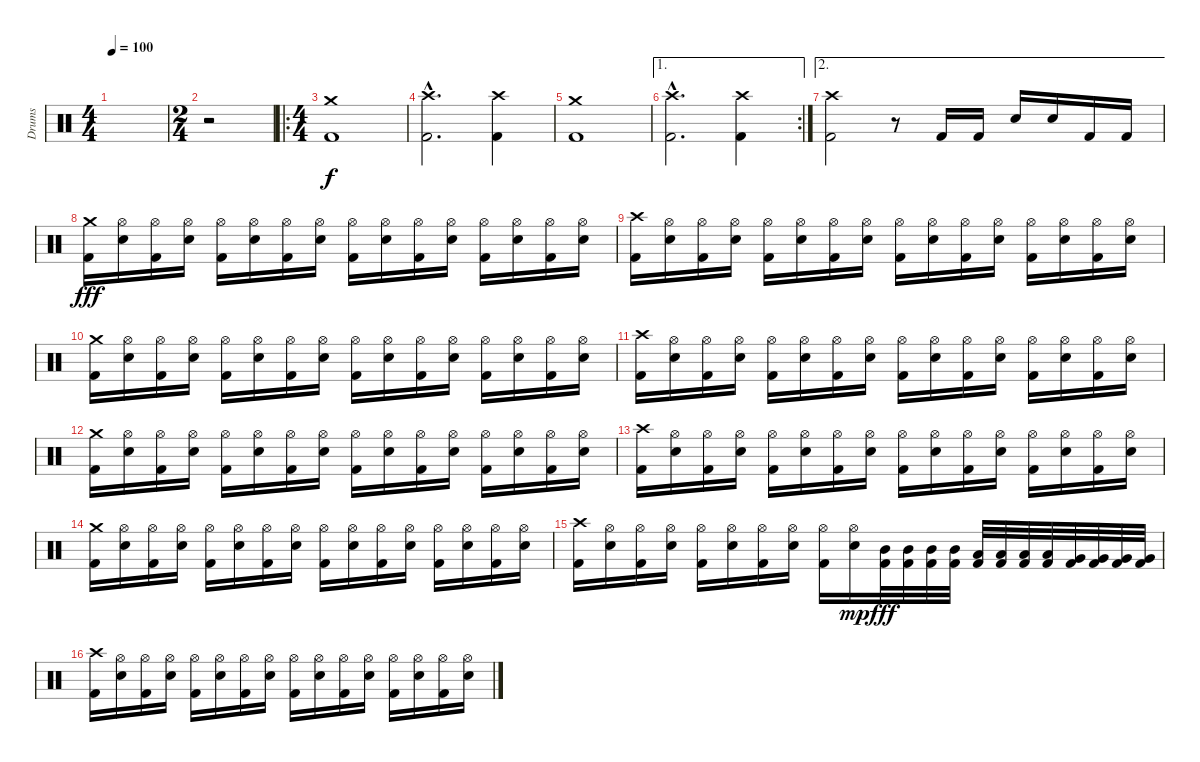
\track ("Drums" "Drums") {instrument percussion}
\staff {score}
\articulation defaults
\ts (4 4)
\tempo 100
\clef neutral
\ks c
|
\ts (2 4)
r.2 |
\ro
\ts (4 4)
("Crash medium (hit)" "Kick (hit) 2").1 |
("Crash high (hit)"{hac} "Kick (hit) 2"{hac}).2{d} ("Crash high (hit)" "Kick (hit) 2").4 |
("Crash medium (hit)" "Kick (hit) 2").1 |
\ae 1
\rc 2
("Crash high (hit)"{hac} "Kick (hit) 2"{hac}).2{d} ("Crash high (hit)" "Kick (hit) 2").4 |
\ae 2
("Crash high (hit)" "Kick (hit) 2").2 r.8 "Kick (hit) 2".16 "Kick (hit) 2".16 "Snare (hit) 2".16 "Snare (hit) 2".16 "Kick (hit) 2".16 "Kick (hit) 2".16 |
("Crash medium (hit)" "Kick (hit) 2").16{dy fff} ("Hi-Hat (open)" "Snare (hit) 2").16 ("Hi-Hat (open)" "Kick (hit) 2").16 ("Hi-Hat (open)" "Snare (hit) 2").16 ("Hi-Hat (open)" "Kick (hit) 2").16 ("Hi-Hat (open)" "Snare (hit) 2").16 ("Hi-Hat (open)" "Kick (hit) 2").16 ("Hi-Hat (open)" "Snare (hit) 2").16 ("Hi-Hat (open)" "Kick (hit) 2").16 ("Hi-Hat (open)" "Snare (hit) 2").16 ("Hi-Hat (open)" "Kick (hit) 2").16 ("Hi-Hat (open)" "Snare (hit) 2").16 ("Hi-Hat (open)" "Kick (hit) 2").16 ("Hi-Hat (open)" "Snare (hit) 2").16 ("Hi-Hat (open)" "Kick (hit) 2").16 ("Hi-Hat (open)" "Snare (hit) 2").16 |
("Crash high (hit)" "Kick (hit) 2").16 ("Hi-Hat (open)" "Snare (hit) 2").16 ("Hi-Hat (open)" "Kick (hit) 2").16 ("Hi-Hat (open)" "Snare (hit) 2").16 ("Hi-Hat (open)" "Kick (hit) 2").16 ("Hi-Hat (open)" "Snare (hit) 2").16 ("Hi-Hat (open)" "Kick (hit) 2").16 ("Hi-Hat (open)" "Snare (hit) 2").16 ("Hi-Hat (open)" "Kick (hit) 2").16 ("Hi-Hat (open)" "Snare (hit) 2").16 ("Hi-Hat (open)" "Kick (hit) 2").16 ("Hi-Hat (open)" "Snare (hit) 2").16 ("Hi-Hat (open)" "Kick (hit) 2").16 ("Hi-Hat (open)" "Snare (hit) 2").16 ("Hi-Hat (open)" "Kick (hit) 2").16 ("Hi-Hat (open)" "Snare (hit) 2").16 |
("Crash medium (hit)" "Kick (hit) 2").16 ("Hi-Hat (open)" "Snare (hit) 2").16 ("Hi-Hat (open)" "Kick (hit) 2").16 ("Hi-Hat (open)" "Snare (hit) 2").16 ("Hi-Hat (open)" "Kick (hit) 2").16 ("Hi-Hat (open)" "Snare (hit) 2").16 ("Hi-Hat (open)" "Kick (hit) 2").16 ("Hi-Hat (open)" "Snare (hit) 2").16 ("Hi-Hat (open)" "Kick (hit) 2").16 ("Hi-Hat (open)" "Snare (hit) 2").16 ("Hi-Hat (open)" "Kick (hit) 2").16 ("Hi-Hat (open)" "Snare (hit) 2").16 ("Hi-Hat (open)" "Kick (hit) 2").16 ("Hi-Hat (open)" "Snare (hit) 2").16 ("Hi-Hat (open)" "Kick (hit) 2").16 ("Hi-Hat (open)" "Snare (hit) 2").16 |
("Crash high (hit)" "Kick (hit) 2").16 ("Hi-Hat (open)" "Snare (hit) 2").16 ("Hi-Hat (open)" "Kick (hit) 2").16 ("Hi-Hat (open)" "Snare (hit) 2").16 ("Hi-Hat (open)" "Kick (hit) 2").16 ("Hi-Hat (open)" "Snare (hit) 2").16 ("Hi-Hat (open)" "Kick (hit) 2").16 ("Hi-Hat (open)" "Snare (hit) 2").16 ("Hi-Hat (open)" "Kick (hit) 2").16 ("Hi-Hat (open)" "Snare (hit) 2").16 ("Hi-Hat (open)" "Kick (hit) 2").16 ("Hi-Hat (open)" "Snare (hit) 2").16 ("Hi-Hat (open)" "Kick (hit) 2").16 ("Hi-Hat (open)" "Snare (hit) 2").16 ("Hi-Hat (open)" "Kick (hit) 2").16 ("Hi-Hat (open)" "Snare (hit) 2").16 |
("Crash medium (hit)" "Kick (hit) 2").16 ("Hi-Hat (open)" "Snare (hit) 2").16 ("Hi-Hat (open)" "Kick (hit) 2").16 ("Hi-Hat (open)" "Snare (hit) 2").16 ("Hi-Hat (open)" "Kick (hit) 2").16 ("Hi-Hat (open)" "Snare (hit) 2").16 ("Hi-Hat (open)" "Kick (hit) 2").16 ("Hi-Hat (open)" "Snare (hit) 2").16 ("Hi-Hat (open)" "Kick (hit) 2").16 ("Hi-Hat (open)" "Snare (hit) 2").16 ("Hi-Hat (open)" "Kick (hit) 2").16 ("Hi-Hat (open)" "Snare (hit) 2").16 ("Hi-Hat (open)" "Kick (hit) 2").16 ("Hi-Hat (open)" "Snare (hit) 2").16 ("Hi-Hat (open)" "Kick (hit) 2").16 ("Hi-Hat (open)" "Snare (hit) 2").16 |
("Crash high (hit)" "Kick (hit) 2").16 ("Hi-Hat (open)" "Snare (hit) 2").16 ("Hi-Hat (open)" "Kick (hit) 2").16 ("Hi-Hat (open)" "Snare (hit) 2").16 ("Hi-Hat (open)" "Kick (hit) 2").16 ("Hi-Hat (open)" "Snare (hit) 2").16 ("Hi-Hat (open)" "Kick (hit) 2").16 ("Hi-Hat (open)" "Snare (hit) 2").16 ("Hi-Hat (open)" "Kick (hit) 2").16 ("Hi-Hat (open)" "Snare (hit) 2").16 ("Hi-Hat (open)" "Kick (hit) 2").16 ("Hi-Hat (open)" "Snare (hit) 2").16 ("Hi-Hat (open)" "Kick (hit) 2").16 ("Hi-Hat (open)" "Snare (hit) 2").16 ("Hi-Hat (open)" "Kick (hit) 2").16 ("Hi-Hat (open)" "Snare (hit) 2").16 |
("Crash medium (hit)" "Kick (hit) 2").16 ("Hi-Hat (open)" "Snare (hit) 2").16 ("Hi-Hat (open)" "Kick (hit) 2").16 ("Hi-Hat (open)" "Snare (hit) 2").16 ("Hi-Hat (open)" "Kick (hit) 2").16 ("Hi-Hat (open)" "Snare (hit) 2").16 ("Hi-Hat (open)" "Kick (hit) 2").16 ("Hi-Hat (open)" "Snare (hit) 2").16 ("Hi-Hat (open)" "Kick (hit) 2").16 ("Hi-Hat (open)" "Snare (hit) 2").16 ("Hi-Hat (open)" "Kick (hit) 2").16 ("Hi-Hat (open)" "Snare (hit) 2").16 ("Hi-Hat (open)" "Kick (hit) 2").16 ("Hi-Hat (open)" "Snare (hit) 2").16 ("Hi-Hat (open)" "Kick (hit) 2").16 ("Hi-Hat (open)" "Snare (hit) 2").16 |
("Crash high (hit)" "Kick (hit) 2").16 ("Hi-Hat (open)" "Snare (hit) 2").16 ("Hi-Hat (open)" "Kick (hit) 2").16 ("Hi-Hat (open)" "Snare (hit) 2").16 ("Hi-Hat (open)" "Kick (hit) 2").16 ("Hi-Hat (open)" "Snare (hit) 2").16 ("Hi-Hat (open)" "Kick (hit) 2").16 ("Hi-Hat (open)" "Snare (hit) 2").16 ("Hi-Hat (open)" "Kick (hit) 2").16 ("Hi-Hat (open)" "Snare (hit) 2").16{dy mp} ("Mid Tom (hit)" "Kick (hit) 2").32{dy fff} ("Mid Tom (hit)" "Kick (hit) 2").32 ("Mid Tom (hit)" "Kick (hit) 2").32 ("Mid Tom (hit)" "Kick (hit) 2").32 ("Low Tom (hit)" "Kick (hit) 2").32 ("Low Tom (hit)" "Kick (hit) 2").32 ("Low Tom (hit)" "Kick (hit) 2").32 ("Low Tom (hit)" "Kick (hit) 2").32 ("Very Low Tom (hit)" "Kick (hit) 2").32 ("Very Low Tom (hit)" "Kick (hit) 2").32 ("Very Low Tom (hit)" "Kick (hit) 2").32 ("Very Low Tom (hit)" "Kick (hit) 2").32 |
("Crash high (hit)" "Kick (hit) 2").16 ("Hi-Hat (open)" "Snare (hit) 2").16 ("Hi-Hat (open)" "Kick (hit) 2").16 ("Hi-Hat (open)" "Snare (hit) 2").16 ("Hi-Hat (open)" "Kick (hit) 2").16 ("Hi-Hat (open)" "Snare (hit) 2").16 ("Hi-Hat (open)" "Kick (hit) 2").16 ("Hi-Hat (open)" "Snare (hit) 2").16 ("Hi-Hat (open)" "Kick (hit) 2").16 ("Hi-Hat (open)" "Snare (hit) 2").16 ("Hi-Hat (open)" "Kick (hit) 2").16 ("Hi-Hat (open)" "Snare (hit) 2").16 ("Hi-Hat (open)" "Kick (hit) 2").16 ("Hi-Hat (open)" "Snare (hit) 2").16 ("Hi-Hat (open)" "Kick (hit) 2").16 ("Hi-Hat (open)" "Snare (hit) 2").16
